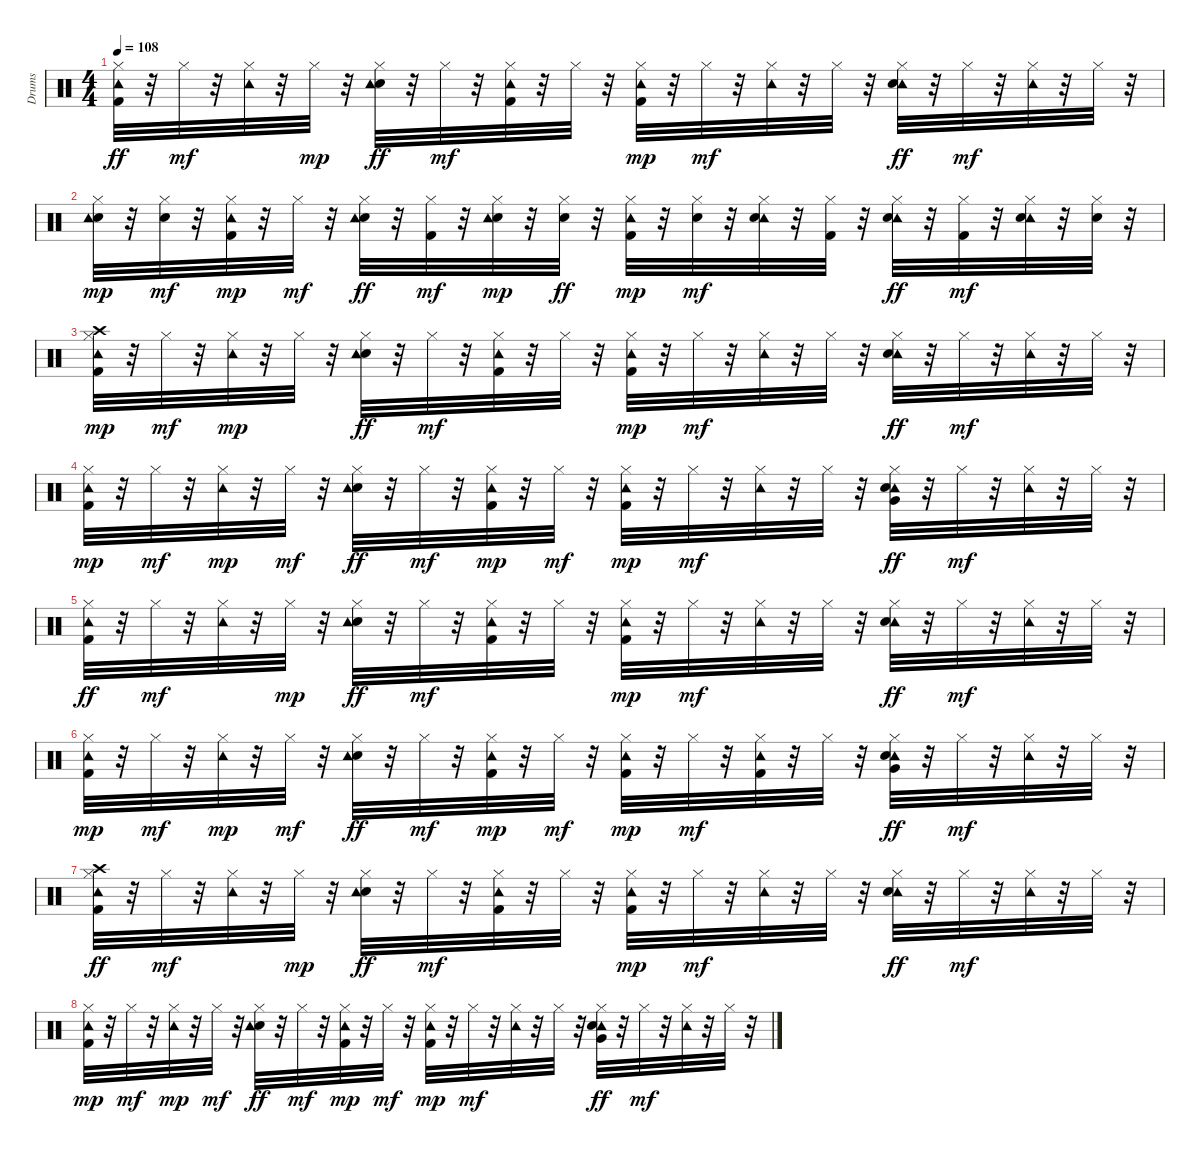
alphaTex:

\track ("Drums               " "Drums     ") {instrument percussion}
\staff {score}
\articulation defaults
\ts (4 4)
\tempo 108
\clef neutral
\ks c
("Kick (hit) 2" "Tambourine (hit)" "Hi-Hat (closed)").32{dy ff} r.32 "Hi-Hat (closed)".32{dy mf} r.32 ("Tambourine (hit)" "Hi-Hat (closed)").32 r.32 "Hi-Hat (closed)".32{dy mp} r.32 ("Snare (hit) 2" "Hi-Hat (closed)" "Tambourine (hit)").32{dy ff} r.32 "Hi-Hat (closed)".32{dy mf} r.32 ("Tambourine (hit)" "Kick (hit) 2" "Hi-Hat (closed)").32 r.32 "Hi-Hat (closed)".32 r.32 ("Kick (hit) 2" "Hi-Hat (closed)" "Tambourine (hit)").32{dy mp} r.32 "Hi-Hat (closed)".32{dy mf} r.32 ("Tambourine (hit)" "Hi-Hat (closed)").32 r.32 "Hi-Hat (closed)".32 r.32 ("Tambourine (hit)" "Hi-Hat (closed)" "Snare (hit) 2").32{dy ff} r.32 "Hi-Hat (closed)".32{dy mf} r.32 ("Tambourine (hit)" "Hi-Hat (closed)").32 r.32 "Hi-Hat (closed)".32 r.32 |
("Snare (hit) 2" "Hi-Hat (closed)" "Tambourine (hit)").32{dy mp} r.32 ("Snare (hit) 2" "Hi-Hat (closed)").32{dy mf} r.32 ("Kick (hit) 2" "Hi-Hat (closed)" "Tambourine (hit)").32{dy mp} r.32 "Hi-Hat (closed)".32{dy mf} r.32 ("Snare (hit) 2" "Hi-Hat (closed)" "Tambourine (hit)").32{dy ff} r.32 ("Kick (hit) 2" "Hi-Hat (closed)").32{dy mf} r.32 ("Snare (hit) 2" "Hi-Hat (closed)" "Tambourine (hit)").32{dy mp} r.32 ("Hi-Hat (closed)" "Snare (hit) 2").32{dy ff} r.32 ("Kick (hit) 2" "Hi-Hat (closed)" "Tambourine (hit)").32{dy mp} r.32 ("Snare (hit) 2" "Hi-Hat (closed)").32{dy mf} r.32 ("Tambourine (hit)" "Snare (hit) 2" "Hi-Hat (closed)").32 r.32 ("Kick (hit) 2" "Hi-Hat (closed)").32 r.32 ("Tambourine (hit)" "Snare (hit) 2" "Hi-Hat (closed)").32{dy ff} r.32 ("Kick (hit) 2" "Hi-Hat (closed)").32{dy mf} r.32 ("Tambourine (hit)" "Snare (hit) 2" "Hi-Hat (closed)").32 r.32 ("Snare (hit) 2" "Hi-Hat (closed)").32 r.32 |
("Kick (hit) 2" "Hi-Hat (closed)" "Crash high (hit)" "Tambourine (hit)").32{dy mp} r.32 "Hi-Hat (closed)".32{dy mf} r.32 ("Hi-Hat (closed)" "Tambourine (hit)").32{dy mp} r.32 "Hi-Hat (closed)".32 r.32 ("Snare (hit) 2" "Hi-Hat (closed)" "Tambourine (hit)").32{dy ff} r.32 "Hi-Hat (closed)".32{dy mf} r.32 ("Tambourine (hit)" "Kick (hit) 2" "Hi-Hat (closed)").32 r.32 "Hi-Hat (closed)".32 r.32 ("Kick (hit) 2" "Hi-Hat (closed)" "Tambourine (hit)").32{dy mp} r.32 "Hi-Hat (closed)".32{dy mf} r.32 ("Tambourine (hit)" "Hi-Hat (closed)").32 r.32 "Hi-Hat (closed)".32 r.32 ("Tambourine (hit)" "Snare (hit) 2" "Hi-Hat (closed)").32{dy ff} r.32 "Hi-Hat (closed)".32{dy mf} r.32 ("Tambourine (hit)" "Hi-Hat (closed)").32 r.32 "Hi-Hat (closed)".32 r.32 |
("Kick (hit) 2" "Hi-Hat (closed)" "Tambourine (hit)").32{dy mp} r.32 "Hi-Hat (closed)".32{dy mf} r.32 ("Hi-Hat (closed)" "Tambourine (hit)").32{dy mp} r.32 "Hi-Hat (closed)".32{dy mf} r.32 ("Snare (hit) 2" "Hi-Hat (closed)" "Tambourine (hit)").32{dy ff} r.32 "Hi-Hat (closed)".32{dy mf} r.32 ("Kick (hit) 2" "Hi-Hat (closed)" "Tambourine (hit)").32{dy mp} r.32 "Hi-Hat (closed)".32{dy mf} r.32 ("Hi-Hat (closed)" "Kick (hit) 2" "Tambourine (hit)").32{dy mp} r.32 "Hi-Hat (closed)".32{dy mf} r.32 ("Tambourine (hit)" "Hi-Hat (closed)").32 r.32 "Hi-Hat (closed)".32 r.32 ("Tambourine (hit)" "Snare (hit) 2" "Very Low Tom (hit)" "Hi-Hat (closed)").32{dy ff} r.32 "Hi-Hat (closed)".32{dy mf} r.32 ("Tambourine (hit)" "Hi-Hat (closed)").32 r.32 "Hi-Hat (closed)".32 r.32 |
("Kick (hit) 2" "Tambourine (hit)" "Hi-Hat (closed)").32{dy ff} r.32 "Hi-Hat (closed)".32{dy mf} r.32 ("Tambourine (hit)" "Hi-Hat (closed)").32 r.32 "Hi-Hat (closed)".32{dy mp} r.32 ("Snare (hit) 2" "Hi-Hat (closed)" "Tambourine (hit)").32{dy ff} r.32 "Hi-Hat (closed)".32{dy mf} r.32 ("Tambourine (hit)" "Kick (hit) 2" "Hi-Hat (closed)").32 r.32 "Hi-Hat (closed)".32 r.32 ("Kick (hit) 2" "Hi-Hat (closed)" "Tambourine (hit)").32{dy mp} r.32 "Hi-Hat (closed)".32{dy mf} r.32 ("Tambourine (hit)" "Hi-Hat (closed)").32 r.32 "Hi-Hat (closed)".32 r.32 ("Tambourine (hit)" "Snare (hit) 2" "Hi-Hat (closed)").32{dy ff} r.32 "Hi-Hat (closed)".32{dy mf} r.32 ("Tambourine (hit)" "Hi-Hat (closed)").32 r.32 "Hi-Hat (closed)".32 r.32 |
("Kick (hit) 2" "Hi-Hat (closed)" "Tambourine (hit)").32{dy mp} r.32 "Hi-Hat (closed)".32{dy mf} r.32 ("Hi-Hat (closed)" "Tambourine (hit)").32{dy mp} r.32 "Hi-Hat (closed)".32{dy mf} r.32 ("Snare (hit) 2" "Hi-Hat (closed)" "Tambourine (hit)").32{dy ff} r.32 "Hi-Hat (closed)".32{dy mf} r.32 ("Kick (hit) 2" "Hi-Hat (closed)" "Tambourine (hit)").32{dy mp} r.32 "Hi-Hat (closed)".32{dy mf} r.32 ("Kick (hit) 2" "Hi-Hat (closed)" "Tambourine (hit)").32{dy mp} r.32 "Hi-Hat (closed)".32{dy mf} r.32 ("Tambourine (hit)" "Kick (hit) 2" "Hi-Hat (closed)").32 r.32 "Hi-Hat (closed)".32 r.32 ("Tambourine (hit)" "Snare (hit) 2" "Very Low Tom (hit)" "Hi-Hat (closed)").32{dy ff} r.32 "Hi-Hat (closed)".32{dy mf} r.32 ("Tambourine (hit)" "Hi-Hat (closed)").32 r.32 "Hi-Hat (closed)".32 r.32 |
("Kick (hit) 2" "Crash high (hit)" "Tambourine (hit)" "Hi-Hat (closed)").32{dy ff} r.32 "Hi-Hat (closed)".32{dy mf} r.32 ("Tambourine (hit)" "Hi-Hat (closed)").32 r.32 "Hi-Hat (closed)".32{dy mp} r.32 ("Hi-Hat (closed)" "Snare (hit) 2" "Tambourine (hit)").32{dy ff} r.32 "Hi-Hat (closed)".32{dy mf} r.32 ("Tambourine (hit)" "Kick (hit) 2" "Hi-Hat (closed)").32 r.32 "Hi-Hat (closed)".32 r.32 ("Kick (hit) 2" "Hi-Hat (closed)" "Tambourine (hit)").32{dy mp} r.32 "Hi-Hat (closed)".32{dy mf} r.32 ("Tambourine (hit)" "Hi-Hat (closed)").32 r.32 "Hi-Hat (closed)".32 r.32 ("Tambourine (hit)" "Snare (hit) 2" "Hi-Hat (closed)").32{dy ff} r.32 "Hi-Hat (closed)".32{dy mf} r.32 ("Tambourine (hit)" "Hi-Hat (closed)").32 r.32 "Hi-Hat (closed)".32 r.32 |
("Kick (hit) 2" "Hi-Hat (closed)" "Tambourine (hit)").32{dy mp} r.32 "Hi-Hat (closed)".32{dy mf} r.32 ("Hi-Hat (closed)" "Tambourine (hit)").32{dy mp} r.32 "Hi-Hat (closed)".32{dy mf} r.32 ("Snare (hit) 2" "Hi-Hat (closed)" "Tambourine (hit)").32{dy ff} r.32 "Hi-Hat (closed)".32{dy mf} r.32 ("Kick (hit) 2" "Hi-Hat (closed)" "Tambourine (hit)").32{dy mp} r.32 "Hi-Hat (closed)".32{dy mf} r.32 ("Kick (hit) 2" "Hi-Hat (closed)" "Tambourine (hit)").32{dy mp} r.32 "Hi-Hat (closed)".32{dy mf} r.32 ("Tambourine (hit)" "Hi-Hat (closed)").32 r.32 "Hi-Hat (closed)".32 r.32 ("Tambourine (hit)" "Snare (hit) 2" "Very Low Tom (hit)" "Hi-Hat (closed)").32{dy ff} r.32 "Hi-Hat (closed)".32{dy mf} r.32 ("Tambourine (hit)" "Hi-Hat (closed)").32 r.32 "Hi-Hat (closed)".32 r.32
